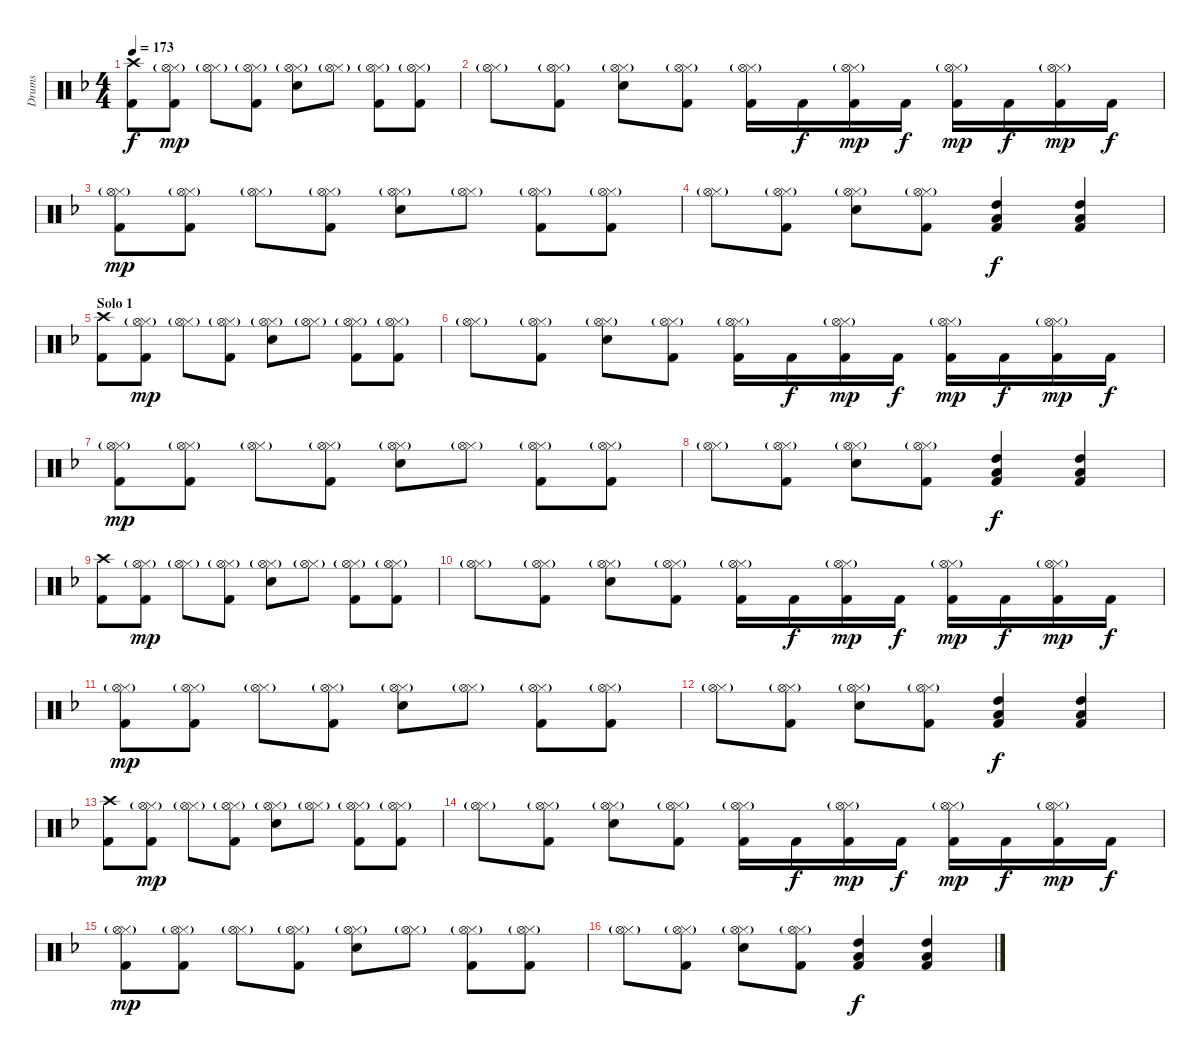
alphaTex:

\track ("Drums" "Drums") {instrument percussion}
\staff {score}
\articulation defaults
\ts (4 4)
\tempo 173
\clef neutral
\ks dminor
("Crash high (hit)" "Kick (hit) 2").8{dy f} ("Hi-Hat (closed)"{g} "Hi-Hat (open)"{g} "Kick (hit) 2").8{dy mp} ("Hi-Hat (closed)"{g} "Hi-Hat (open)"{g}).8 ("Hi-Hat (closed)"{g} "Hi-Hat (open)"{g} "Kick (hit) 2").8 ("Hi-Hat (closed)"{g} "Hi-Hat (open)"{g} "Snare (hit) 2").8 ("Hi-Hat (closed)"{g} "Hi-Hat (open)"{g}).8 ("Hi-Hat (closed)"{g} "Hi-Hat (open)"{g} "Kick (hit) 2").8 ("Hi-Hat (closed)"{g} "Hi-Hat (open)"{g} "Kick (hit) 2").8 |
("Hi-Hat (closed)"{g} "Hi-Hat (open)"{g}).8 ("Hi-Hat (closed)"{g} "Hi-Hat (open)"{g} "Kick (hit) 2").8 ("Hi-Hat (closed)"{g} "Hi-Hat (open)"{g} "Snare (hit) 2").8 ("Hi-Hat (closed)"{g} "Hi-Hat (open)"{g} "Kick (hit) 2").8 ("Hi-Hat (closed)"{g} "Hi-Hat (open)"{g} "Kick (hit) 2").16 "Kick (hit) 2".16{dy f} ("Hi-Hat (closed)"{g} "Hi-Hat (open)"{g} "Kick (hit) 2").16{dy mp} "Kick (hit) 2".16{dy f} ("Hi-Hat (closed)"{g} "Hi-Hat (open)"{g} "Kick (hit) 2").16{dy mp} "Kick (hit) 2".16{dy f} ("Hi-Hat (closed)"{g} "Hi-Hat (open)"{g} "Kick (hit) 2").16{dy mp} "Kick (hit) 2".16{dy f} |
("Hi-Hat (closed)"{g} "Hi-Hat (open)"{g} "Kick (hit) 2").8{dy mp} ("Hi-Hat (closed)"{g} "Hi-Hat (open)"{g} "Kick (hit) 2").8 ("Hi-Hat (closed)"{g} "Hi-Hat (open)"{g}).8 ("Hi-Hat (closed)"{g} "Hi-Hat (open)"{g} "Kick (hit) 2").8 ("Hi-Hat (closed)"{g} "Hi-Hat (open)"{g} "Snare (hit) 2").8 ("Hi-Hat (closed)"{g} "Hi-Hat (open)"{g}).8 ("Hi-Hat (closed)"{g} "Hi-Hat (open)"{g} "Kick (hit) 2").8 ("Hi-Hat (closed)"{g} "Hi-Hat (open)"{g} "Kick (hit) 2").8 |
("Hi-Hat (closed)"{g} "Hi-Hat (open)"{g}).8 ("Hi-Hat (closed)"{g} "Hi-Hat (open)"{g} "Kick (hit) 2").8 ("Hi-Hat (closed)"{g} "Hi-Hat (open)"{g} "Snare (hit) 2").8 ("Hi-Hat (closed)"{g} "Hi-Hat (open)"{g} "Kick (hit) 2").8 ("High Tom (hit)" "Low Tom (hit)" "Kick (hit) 2").4{dy f} ("High Tom (hit)" "Low Tom (hit)" "Kick (hit) 2").4 |
\section ("" "Solo 1")
("Crash high (hit)" "Kick (hit) 2").8 ("Hi-Hat (closed)"{g} "Hi-Hat (open)"{g} "Kick (hit) 2").8{dy mp} ("Hi-Hat (closed)"{g} "Hi-Hat (open)"{g}).8 ("Hi-Hat (closed)"{g} "Hi-Hat (open)"{g} "Kick (hit) 2").8 ("Hi-Hat (closed)"{g} "Hi-Hat (open)"{g} "Snare (hit) 2").8 ("Hi-Hat (closed)"{g} "Hi-Hat (open)"{g}).8 ("Hi-Hat (closed)"{g} "Hi-Hat (open)"{g} "Kick (hit) 2").8 ("Hi-Hat (closed)"{g} "Hi-Hat (open)"{g} "Kick (hit) 2").8 |
("Hi-Hat (closed)"{g} "Hi-Hat (open)"{g}).8 ("Hi-Hat (closed)"{g} "Hi-Hat (open)"{g} "Kick (hit) 2").8 ("Hi-Hat (closed)"{g} "Hi-Hat (open)"{g} "Snare (hit) 2").8 ("Hi-Hat (closed)"{g} "Hi-Hat (open)"{g} "Kick (hit) 2").8 ("Hi-Hat (closed)"{g} "Hi-Hat (open)"{g} "Kick (hit) 2").16 "Kick (hit) 2".16{dy f} ("Hi-Hat (closed)"{g} "Hi-Hat (open)"{g} "Kick (hit) 2").16{dy mp} "Kick (hit) 2".16{dy f} ("Hi-Hat (closed)"{g} "Hi-Hat (open)"{g} "Kick (hit) 2").16{dy mp} "Kick (hit) 2".16{dy f} ("Hi-Hat (closed)"{g} "Hi-Hat (open)"{g} "Kick (hit) 2").16{dy mp} "Kick (hit) 2".16{dy f} |
("Hi-Hat (closed)"{g} "Hi-Hat (open)"{g} "Kick (hit) 2").8{dy mp} ("Hi-Hat (closed)"{g} "Hi-Hat (open)"{g} "Kick (hit) 2").8 ("Hi-Hat (closed)"{g} "Hi-Hat (open)"{g}).8 ("Hi-Hat (closed)"{g} "Hi-Hat (open)"{g} "Kick (hit) 2").8 ("Hi-Hat (closed)"{g} "Hi-Hat (open)"{g} "Snare (hit) 2").8 ("Hi-Hat (closed)"{g} "Hi-Hat (open)"{g}).8 ("Hi-Hat (closed)"{g} "Hi-Hat (open)"{g} "Kick (hit) 2").8 ("Hi-Hat (closed)"{g} "Hi-Hat (open)"{g} "Kick (hit) 2").8 |
("Hi-Hat (closed)"{g} "Hi-Hat (open)"{g}).8 ("Hi-Hat (closed)"{g} "Hi-Hat (open)"{g} "Kick (hit) 2").8 ("Hi-Hat (closed)"{g} "Hi-Hat (open)"{g} "Snare (hit) 2").8 ("Hi-Hat (closed)"{g} "Hi-Hat (open)"{g} "Kick (hit) 2").8 ("High Tom (hit)" "Low Tom (hit)" "Kick (hit) 2").4{dy f} ("High Tom (hit)" "Low Tom (hit)" "Kick (hit) 2").4 |
("Crash high (hit)" "Kick (hit) 2").8 ("Hi-Hat (closed)"{g} "Hi-Hat (open)"{g} "Kick (hit) 2").8{dy mp} ("Hi-Hat (closed)"{g} "Hi-Hat (open)"{g}).8 ("Hi-Hat (closed)"{g} "Hi-Hat (open)"{g} "Kick (hit) 2").8 ("Hi-Hat (closed)"{g} "Hi-Hat (open)"{g} "Snare (hit) 2").8 ("Hi-Hat (closed)"{g} "Hi-Hat (open)"{g}).8 ("Hi-Hat (closed)"{g} "Hi-Hat (open)"{g} "Kick (hit) 2").8 ("Hi-Hat (closed)"{g} "Hi-Hat (open)"{g} "Kick (hit) 2").8 |
("Hi-Hat (closed)"{g} "Hi-Hat (open)"{g}).8 ("Hi-Hat (closed)"{g} "Hi-Hat (open)"{g} "Kick (hit) 2").8 ("Hi-Hat (closed)"{g} "Hi-Hat (open)"{g} "Snare (hit) 2").8 ("Hi-Hat (closed)"{g} "Hi-Hat (open)"{g} "Kick (hit) 2").8 ("Hi-Hat (closed)"{g} "Hi-Hat (open)"{g} "Kick (hit) 2").16 "Kick (hit) 2".16{dy f} ("Hi-Hat (closed)"{g} "Hi-Hat (open)"{g} "Kick (hit) 2").16{dy mp} "Kick (hit) 2".16{dy f} ("Hi-Hat (closed)"{g} "Hi-Hat (open)"{g} "Kick (hit) 2").16{dy mp} "Kick (hit) 2".16{dy f} ("Hi-Hat (closed)"{g} "Hi-Hat (open)"{g} "Kick (hit) 2").16{dy mp} "Kick (hit) 2".16{dy f} |
("Hi-Hat (closed)"{g} "Hi-Hat (open)"{g} "Kick (hit) 2").8{dy mp} ("Hi-Hat (closed)"{g} "Hi-Hat (open)"{g} "Kick (hit) 2").8 ("Hi-Hat (closed)"{g} "Hi-Hat (open)"{g}).8 ("Hi-Hat (closed)"{g} "Hi-Hat (open)"{g} "Kick (hit) 2").8 ("Hi-Hat (closed)"{g} "Hi-Hat (open)"{g} "Snare (hit) 2").8 ("Hi-Hat (closed)"{g} "Hi-Hat (open)"{g}).8 ("Hi-Hat (closed)"{g} "Hi-Hat (open)"{g} "Kick (hit) 2").8 ("Hi-Hat (closed)"{g} "Hi-Hat (open)"{g} "Kick (hit) 2").8 |
("Hi-Hat (closed)"{g} "Hi-Hat (open)"{g}).8 ("Hi-Hat (closed)"{g} "Hi-Hat (open)"{g} "Kick (hit) 2").8 ("Hi-Hat (closed)"{g} "Hi-Hat (open)"{g} "Snare (hit) 2").8 ("Hi-Hat (closed)"{g} "Hi-Hat (open)"{g} "Kick (hit) 2").8 ("High Tom (hit)" "Low Tom (hit)" "Kick (hit) 2").4{dy f} ("High Tom (hit)" "Low Tom (hit)" "Kick (hit) 2").4 |
("Crash high (hit)" "Kick (hit) 2").8 ("Hi-Hat (closed)"{g} "Hi-Hat (open)"{g} "Kick (hit) 2").8{dy mp} ("Hi-Hat (closed)"{g} "Hi-Hat (open)"{g}).8 ("Hi-Hat (closed)"{g} "Hi-Hat (open)"{g} "Kick (hit) 2").8 ("Hi-Hat (closed)"{g} "Hi-Hat (open)"{g} "Snare (hit) 2").8 ("Hi-Hat (closed)"{g} "Hi-Hat (open)"{g}).8 ("Hi-Hat (closed)"{g} "Hi-Hat (open)"{g} "Kick (hit) 2").8 ("Hi-Hat (closed)"{g} "Hi-Hat (open)"{g} "Kick (hit) 2").8 |
("Hi-Hat (closed)"{g} "Hi-Hat (open)"{g}).8 ("Hi-Hat (closed)"{g} "Hi-Hat (open)"{g} "Kick (hit) 2").8 ("Hi-Hat (closed)"{g} "Hi-Hat (open)"{g} "Snare (hit) 2").8 ("Hi-Hat (closed)"{g} "Hi-Hat (open)"{g} "Kick (hit) 2").8 ("Hi-Hat (closed)"{g} "Hi-Hat (open)"{g} "Kick (hit) 2").16 "Kick (hit) 2".16{dy f} ("Hi-Hat (closed)"{g} "Hi-Hat (open)"{g} "Kick (hit) 2").16{dy mp} "Kick (hit) 2".16{dy f} ("Hi-Hat (closed)"{g} "Hi-Hat (open)"{g} "Kick (hit) 2").16{dy mp} "Kick (hit) 2".16{dy f} ("Hi-Hat (closed)"{g} "Hi-Hat (open)"{g} "Kick (hit) 2").16{dy mp} "Kick (hit) 2".16{dy f} |
("Hi-Hat (closed)"{g} "Hi-Hat (open)"{g} "Kick (hit) 2").8{dy mp} ("Hi-Hat (closed)"{g} "Hi-Hat (open)"{g} "Kick (hit) 2").8 ("Hi-Hat (closed)"{g} "Hi-Hat (open)"{g}).8 ("Hi-Hat (closed)"{g} "Hi-Hat (open)"{g} "Kick (hit) 2").8 ("Hi-Hat (closed)"{g} "Hi-Hat (open)"{g} "Snare (hit) 2").8 ("Hi-Hat (closed)"{g} "Hi-Hat (open)"{g}).8 ("Hi-Hat (closed)"{g} "Hi-Hat (open)"{g} "Kick (hit) 2").8 ("Hi-Hat (closed)"{g} "Hi-Hat (open)"{g} "Kick (hit) 2").8 |
("Hi-Hat (closed)"{g} "Hi-Hat (open)"{g}).8 ("Hi-Hat (closed)"{g} "Hi-Hat (open)"{g} "Kick (hit) 2").8 ("Hi-Hat (closed)"{g} "Hi-Hat (open)"{g} "Snare (hit) 2").8 ("Hi-Hat (closed)"{g} "Hi-Hat (open)"{g} "Kick (hit) 2").8 ("High Tom (hit)" "Low Tom (hit)" "Kick (hit) 2").4{dy f} ("High Tom (hit)" "Low Tom (hit)" "Kick (hit) 2").4
